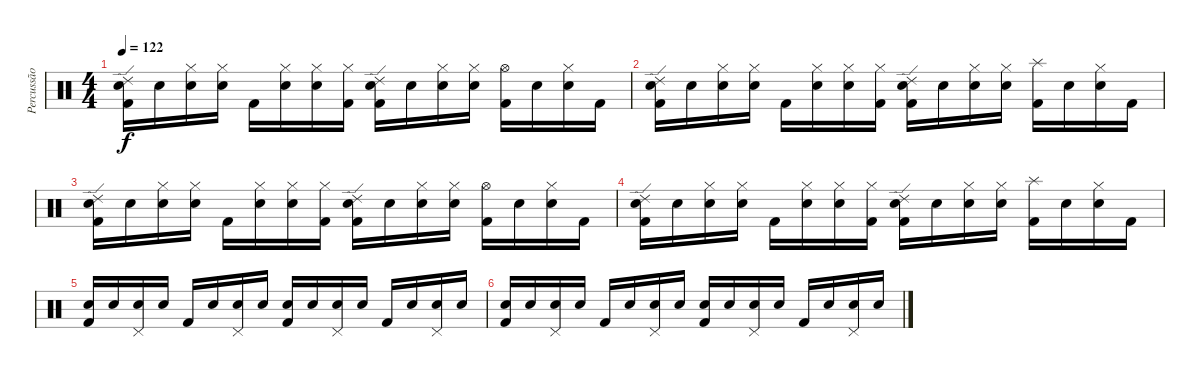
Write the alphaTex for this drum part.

\track ("Percussão" "Percussão") {instrument percussion}
\staff {score}
\articulation defaults
\ts (4 4)
\tempo 122
\clef neutral
\ks c
("Kick (hit) 2" "Electric Snare (hit)" "Ride (edge) 2").16{dy f} "Snare (hit)".16 ("Snare (hit)" "Hi-Hat (closed)").16 ("Snare (hit)" "Hi-Hat (closed)").16 "Kick (hit) 2".16 ("Snare (hit)" "Hi-Hat (closed)").16 ("Snare (hit)" "Hi-Hat (closed)").16 ("Kick (hit) 2" "Hi-Hat (closed)").16 ("Kick (hit) 2" "Electric Snare (hit)" "Ride (edge) 2").16 "Snare (hit)".16 ("Snare (hit)" "Hi-Hat (closed)").16 ("Snare (hit)" "Hi-Hat (closed)").16 ("Kick (hit) 2" "Hi-Hat (open)").16 "Snare (hit)".16 ("Snare (hit)" "Hi-Hat (closed)").16 "Kick (hit) 2".16 |
("Kick (hit) 2" "Electric Snare (hit)" "Ride (edge) 2").16 "Snare (hit)".16 ("Snare (hit)" "Hi-Hat (closed)").16 ("Snare (hit)" "Hi-Hat (closed)").16 "Kick (hit) 2".16 ("Snare (hit)" "Hi-Hat (closed)").16 ("Snare (hit)" "Hi-Hat (closed)").16 ("Kick (hit) 2" "Hi-Hat (closed)").16 ("Kick (hit) 2" "Electric Snare (hit)" "Ride (edge) 2").16 "Snare (hit)".16 ("Snare (hit)" "Hi-Hat (closed)").16 ("Snare (hit)" "Hi-Hat (closed)").16 ("Kick (hit) 2" "Splash (hit)").16 "Snare (hit)".16 ("Snare (hit)" "Hi-Hat (closed)").16 "Kick (hit) 2".16 |
("Kick (hit) 2" "Electric Snare (hit)" "Ride (edge) 2").16 "Snare (hit)".16 ("Snare (hit)" "Hi-Hat (closed)").16 ("Snare (hit)" "Hi-Hat (closed)").16 "Kick (hit) 2".16 ("Snare (hit)" "Hi-Hat (closed)").16 ("Snare (hit)" "Hi-Hat (closed)").16 ("Kick (hit) 2" "Hi-Hat (closed)").16 ("Kick (hit) 2" "Electric Snare (hit)" "Ride (edge) 2").16 "Snare (hit)".16 ("Snare (hit)" "Hi-Hat (closed)").16 ("Snare (hit)" "Hi-Hat (closed)").16 ("Kick (hit) 2" "Hi-Hat (open)").16 "Snare (hit)".16 ("Snare (hit)" "Hi-Hat (closed)").16 "Kick (hit) 2".16 |
("Kick (hit) 2" "Electric Snare (hit)" "Ride (edge) 2").16 "Snare (hit)".16 ("Snare (hit)" "Hi-Hat (closed)").16 ("Snare (hit)" "Hi-Hat (closed)").16 "Kick (hit) 2".16 ("Snare (hit)" "Hi-Hat (closed)").16 ("Snare (hit)" "Hi-Hat (closed)").16 ("Kick (hit) 2" "Hi-Hat (closed)").16 ("Kick (hit) 2" "Electric Snare (hit)" "Ride (edge) 2").16 "Snare (hit)".16 ("Snare (hit)" "Hi-Hat (closed)").16 ("Snare (hit)" "Hi-Hat (closed)").16 ("Kick (hit) 2" "Splash (hit)").16 "Snare (hit)".16 ("Snare (hit)" "Hi-Hat (closed)").16 "Kick (hit) 2".16 |
("Kick (hit) 2" "Electric Snare (hit)").16 "Snare (hit)".16 ("Snare (hit)" "Pedal Hi-Hat (hit)").16 "Snare (hit)".16 "Kick (hit) 2".16 "Snare (hit)".16 ("Snare (hit)" "Pedal Hi-Hat (hit)").16 "Snare (hit)".16 ("Kick (hit) 2" "Electric Snare (hit)").16 "Snare (hit)".16 ("Snare (hit)" "Pedal Hi-Hat (hit)").16 "Snare (hit)".16 "Kick (hit) 2".16 "Snare (hit)".16 ("Snare (hit)" "Pedal Hi-Hat (hit)").16 "Snare (hit)".16 |
("Kick (hit) 2" "Electric Snare (hit)").16 "Snare (hit)".16 ("Snare (hit)" "Pedal Hi-Hat (hit)").16 "Snare (hit)".16 "Kick (hit) 2".16 "Snare (hit)".16 ("Snare (hit)" "Pedal Hi-Hat (hit)").16 "Snare (hit)".16 ("Kick (hit) 2" "Electric Snare (hit)").16 "Snare (hit)".16 ("Snare (hit)" "Pedal Hi-Hat (hit)").16 "Snare (hit)".16 "Kick (hit) 2".16 "Snare (hit)".16 ("Snare (hit)" "Pedal Hi-Hat (hit)").16 "Snare (hit)".16
